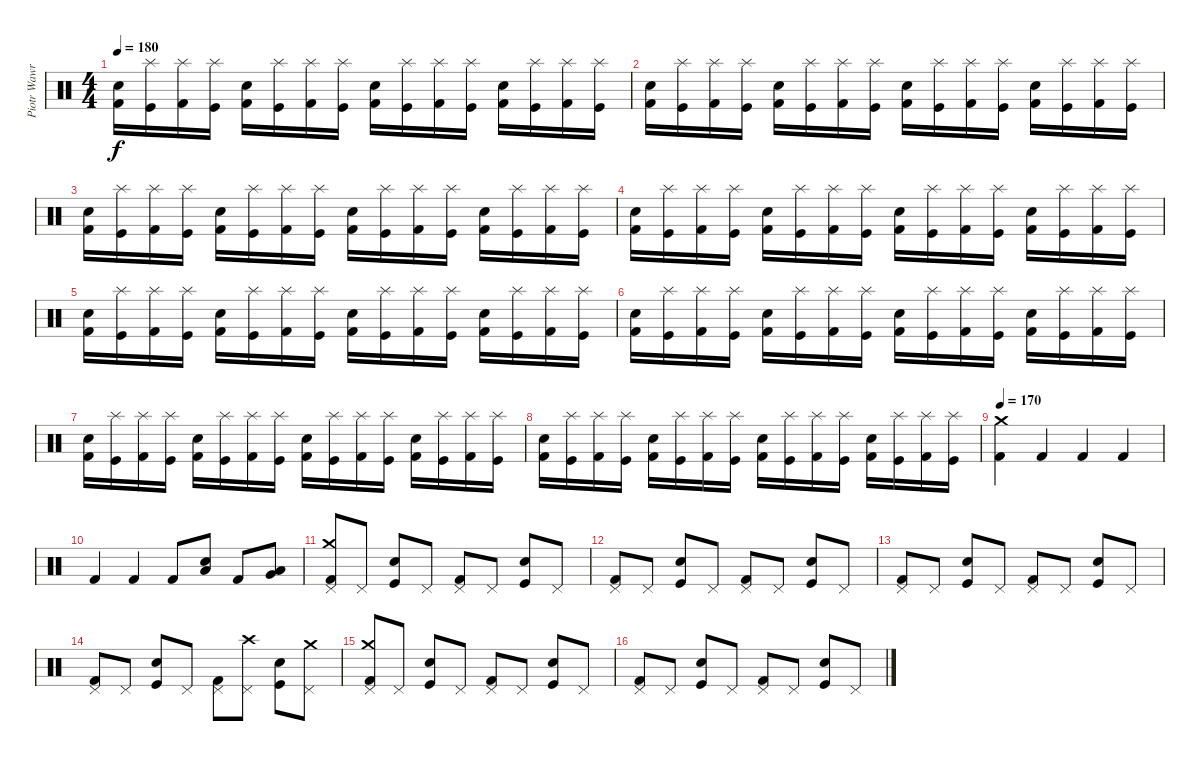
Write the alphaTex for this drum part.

\track ("Piotr Wawrzeniuk" "Piotr Wawr") {instrument percussion}
\staff {score}
\articulation defaults
\ts (4 4)
\tempo 180
\clef neutral
\ks c
("Snare (hit) 2" "Kick (hit) 2").16{dy f} ("Splash (hit)" "Kick (hit)").16 ("Splash (hit)" "Kick (hit) 2").16 ("Splash (hit)" "Kick (hit)").16 ("Snare (hit) 2" "Kick (hit) 2").16 ("Splash (hit)" "Kick (hit)").16 ("Splash (hit)" "Kick (hit) 2").16 ("Splash (hit)" "Kick (hit)").16 ("Snare (hit) 2" "Kick (hit) 2").16 ("Splash (hit)" "Kick (hit)").16 ("Splash (hit)" "Kick (hit) 2").16 ("Splash (hit)" "Kick (hit)").16 ("Snare (hit) 2" "Kick (hit) 2").16 ("Splash (hit)" "Kick (hit)").16 ("Splash (hit)" "Kick (hit) 2").16 ("Splash (hit)" "Kick (hit)").16 |
("Snare (hit) 2" "Kick (hit) 2").16 ("Splash (hit)" "Kick (hit)").16 ("Splash (hit)" "Kick (hit) 2").16 ("Splash (hit)" "Kick (hit)").16 ("Snare (hit) 2" "Kick (hit) 2").16 ("Splash (hit)" "Kick (hit)").16 ("Splash (hit)" "Kick (hit) 2").16 ("Splash (hit)" "Kick (hit)").16 ("Snare (hit) 2" "Kick (hit) 2").16 ("Splash (hit)" "Kick (hit)").16 ("Splash (hit)" "Kick (hit) 2").16 ("Splash (hit)" "Kick (hit)").16 ("Snare (hit) 2" "Kick (hit) 2").16 ("Splash (hit)" "Kick (hit)").16 ("Splash (hit)" "Kick (hit) 2").16 ("Splash (hit)" "Kick (hit)").16 |
("Snare (hit) 2" "Kick (hit) 2").16 ("Splash (hit)" "Kick (hit)").16 ("Splash (hit)" "Kick (hit) 2").16 ("Splash (hit)" "Kick (hit)").16 ("Snare (hit) 2" "Kick (hit) 2").16 ("Splash (hit)" "Kick (hit)").16 ("Splash (hit)" "Kick (hit) 2").16 ("Splash (hit)" "Kick (hit)").16 ("Snare (hit) 2" "Kick (hit) 2").16 ("Splash (hit)" "Kick (hit)").16 ("Splash (hit)" "Kick (hit) 2").16 ("Splash (hit)" "Kick (hit)").16 ("Snare (hit) 2" "Kick (hit) 2").16 ("Splash (hit)" "Kick (hit)").16 ("Splash (hit)" "Kick (hit) 2").16 ("Splash (hit)" "Kick (hit)").16 |
("Snare (hit) 2" "Kick (hit) 2").16 ("Splash (hit)" "Kick (hit)").16 ("Splash (hit)" "Kick (hit) 2").16 ("Splash (hit)" "Kick (hit)").16 ("Snare (hit) 2" "Kick (hit) 2").16 ("Splash (hit)" "Kick (hit)").16 ("Splash (hit)" "Kick (hit) 2").16 ("Splash (hit)" "Kick (hit)").16 ("Snare (hit) 2" "Kick (hit) 2").16 ("Splash (hit)" "Kick (hit)").16 ("Splash (hit)" "Kick (hit) 2").16 ("Splash (hit)" "Kick (hit)").16 ("Snare (hit) 2" "Kick (hit) 2").16 ("Splash (hit)" "Kick (hit)").16 ("Splash (hit)" "Kick (hit) 2").16 ("Splash (hit)" "Kick (hit)").16 |
("Snare (hit) 2" "Kick (hit) 2").16 ("Splash (hit)" "Kick (hit)").16 ("Splash (hit)" "Kick (hit) 2").16 ("Splash (hit)" "Kick (hit)").16 ("Snare (hit) 2" "Kick (hit) 2").16 ("Splash (hit)" "Kick (hit)").16 ("Splash (hit)" "Kick (hit) 2").16 ("Splash (hit)" "Kick (hit)").16 ("Snare (hit) 2" "Kick (hit) 2").16 ("Splash (hit)" "Kick (hit)").16 ("Splash (hit)" "Kick (hit) 2").16 ("Splash (hit)" "Kick (hit)").16 ("Snare (hit) 2" "Kick (hit) 2").16 ("Splash (hit)" "Kick (hit)").16 ("Splash (hit)" "Kick (hit) 2").16 ("Splash (hit)" "Kick (hit)").16 |
("Snare (hit) 2" "Kick (hit) 2").16 ("Splash (hit)" "Kick (hit)").16 ("Splash (hit)" "Kick (hit) 2").16 ("Splash (hit)" "Kick (hit)").16 ("Snare (hit) 2" "Kick (hit) 2").16 ("Splash (hit)" "Kick (hit)").16 ("Splash (hit)" "Kick (hit) 2").16 ("Splash (hit)" "Kick (hit)").16 ("Snare (hit) 2" "Kick (hit) 2").16 ("Splash (hit)" "Kick (hit)").16 ("Splash (hit)" "Kick (hit) 2").16 ("Splash (hit)" "Kick (hit)").16 ("Snare (hit) 2" "Kick (hit) 2").16 ("Splash (hit)" "Kick (hit)").16 ("Splash (hit)" "Kick (hit) 2").16 ("Splash (hit)" "Kick (hit)").16 |
("Snare (hit) 2" "Kick (hit) 2").16 ("Splash (hit)" "Kick (hit)").16 ("Splash (hit)" "Kick (hit) 2").16 ("Splash (hit)" "Kick (hit)").16 ("Snare (hit) 2" "Kick (hit) 2").16 ("Splash (hit)" "Kick (hit)").16 ("Splash (hit)" "Kick (hit) 2").16 ("Splash (hit)" "Kick (hit)").16 ("Snare (hit) 2" "Kick (hit) 2").16 ("Splash (hit)" "Kick (hit)").16 ("Splash (hit)" "Kick (hit) 2").16 ("Splash (hit)" "Kick (hit)").16 ("Snare (hit) 2" "Kick (hit) 2").16 ("Splash (hit)" "Kick (hit)").16 ("Splash (hit)" "Kick (hit) 2").16 ("Splash (hit)" "Kick (hit)").16 |
("Snare (hit) 2" "Kick (hit) 2").16 ("Splash (hit)" "Kick (hit)").16 ("Splash (hit)" "Kick (hit) 2").16 ("Splash (hit)" "Kick (hit)").16 ("Snare (hit) 2" "Kick (hit) 2").16 ("Splash (hit)" "Kick (hit)").16 ("Splash (hit)" "Kick (hit) 2").16 ("Splash (hit)" "Kick (hit)").16 ("Snare (hit) 2" "Kick (hit) 2").16 ("Splash (hit)" "Kick (hit)").16 ("Splash (hit)" "Kick (hit) 2").16 ("Splash (hit)" "Kick (hit)").16 ("Snare (hit) 2" "Kick (hit) 2").16 ("Splash (hit)" "Kick (hit)").16 ("Splash (hit)" "Kick (hit) 2").16 ("Splash (hit)" "Kick (hit)").16 |
\tempo 170
("Crash medium (hit)" "Kick (hit) 2").4 "Kick (hit) 2".4 "Kick (hit) 2".4 "Kick (hit) 2".4 |
"Kick (hit) 2".4 "Kick (hit) 2".4 "Kick (hit) 2".8 ("Snare (hit) 2" "Low Tom (hit)").8 "Kick (hit) 2".8 ("Low Tom (hit)" "Very Low Tom (hit)").8 |
("Crash medium (hit)" "Pedal Hi-Hat (hit)" "Kick (hit) 2").8 "Pedal Hi-Hat (hit)".8 ("Snare (hit) 2" "Kick (hit)").8 "Pedal Hi-Hat (hit)".8 ("Pedal Hi-Hat (hit)" "Kick (hit) 2").8 "Pedal Hi-Hat (hit)".8 ("Snare (hit) 2" "Kick (hit)").8 "Pedal Hi-Hat (hit)".8 |
("Pedal Hi-Hat (hit)" "Kick (hit) 2").8 "Pedal Hi-Hat (hit)".8 ("Snare (hit) 2" "Kick (hit)").8 "Pedal Hi-Hat (hit)".8 ("Pedal Hi-Hat (hit)" "Kick (hit) 2").8 "Pedal Hi-Hat (hit)".8 ("Snare (hit) 2" "Kick (hit)").8 "Pedal Hi-Hat (hit)".8 |
("Pedal Hi-Hat (hit)" "Kick (hit) 2").8 "Pedal Hi-Hat (hit)".8 ("Snare (hit) 2" "Kick (hit)").8 "Pedal Hi-Hat (hit)".8 ("Pedal Hi-Hat (hit)" "Kick (hit) 2").8 "Pedal Hi-Hat (hit)".8 ("Snare (hit) 2" "Kick (hit)").8 "Pedal Hi-Hat (hit)".8 |
("Pedal Hi-Hat (hit)" "Kick (hit) 2").8 "Pedal Hi-Hat (hit)".8 ("Snare (hit) 2" "Kick (hit)").8 "Pedal Hi-Hat (hit)".8 ("Pedal Hi-Hat (hit)" "Kick (hit) 2").8 ("Crash high (hit)" "Pedal Hi-Hat (hit)").8 ("Snare (hit) 2" "Kick (hit)").8 ("Crash medium (hit)" "Pedal Hi-Hat (hit)").8 |
("Crash medium (hit)" "Pedal Hi-Hat (hit)" "Kick (hit) 2").8 "Pedal Hi-Hat (hit)".8 ("Snare (hit) 2" "Kick (hit)").8 "Pedal Hi-Hat (hit)".8 ("Pedal Hi-Hat (hit)" "Kick (hit) 2").8 "Pedal Hi-Hat (hit)".8 ("Snare (hit) 2" "Kick (hit)").8 "Pedal Hi-Hat (hit)".8 |
("Pedal Hi-Hat (hit)" "Kick (hit) 2").8 "Pedal Hi-Hat (hit)".8 ("Snare (hit) 2" "Kick (hit)").8 "Pedal Hi-Hat (hit)".8 ("Pedal Hi-Hat (hit)" "Kick (hit) 2").8 "Pedal Hi-Hat (hit)".8 ("Snare (hit) 2" "Kick (hit)").8 "Pedal Hi-Hat (hit)".8
